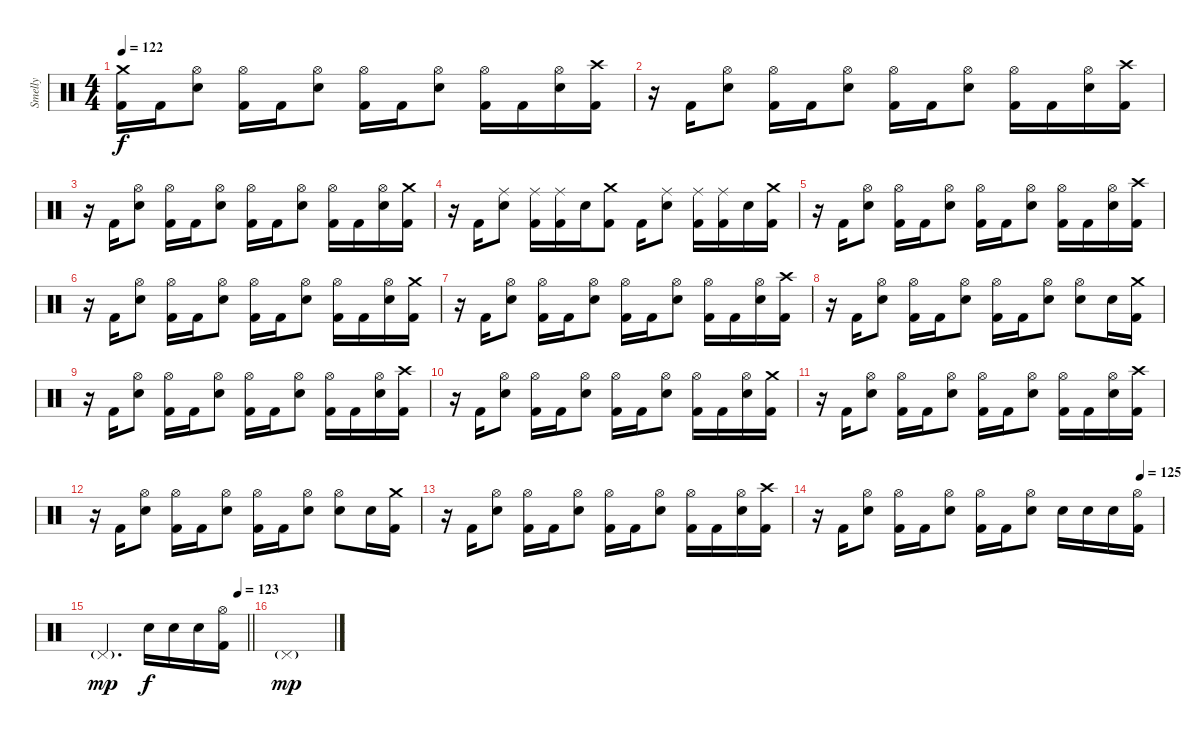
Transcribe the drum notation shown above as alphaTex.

\track ("Smelly" "Smelly") {instrument percussion}
\staff {score}
\articulation defaults
\ts (4 4)
\section ("" "")
\tempo 122
\clef neutral
\ks c
("Crash medium (hit)" "Kick (hit) 2").16{dy f} "Kick (hit) 2".16 ("Hi-Hat (open)" "Electric Snare (hit)").8 ("Hi-Hat (open)" "Kick (hit) 2").16 "Kick (hit) 2".16 ("Hi-Hat (open)" "Electric Snare (hit)").8 ("Hi-Hat (open)" "Kick (hit) 2").16 "Kick (hit) 2".16 ("Hi-Hat (open)" "Electric Snare (hit)").8 ("Hi-Hat (open)" "Kick (hit) 2").16 "Kick (hit) 2".16 ("Hi-Hat (open)" "Electric Snare (hit)").16 ("Crash high (hit)" "Kick (hit) 2").16 |
r.16 "Kick (hit) 2".16 ("Hi-Hat (open)" "Electric Snare (hit)").8 ("Hi-Hat (open)" "Kick (hit) 2").16 "Kick (hit) 2".16 ("Hi-Hat (open)" "Electric Snare (hit)").8 ("Hi-Hat (open)" "Kick (hit) 2").16 "Kick (hit) 2".16 ("Hi-Hat (open)" "Electric Snare (hit)").8 ("Hi-Hat (open)" "Kick (hit) 2").16 "Kick (hit) 2".16 ("Hi-Hat (open)" "Electric Snare (hit)").16 ("Crash high (hit)" "Kick (hit) 2").16 |
r.16 "Kick (hit) 2".16 ("Hi-Hat (open)" "Electric Snare (hit)").8 ("Hi-Hat (open)" "Kick (hit) 2").16 "Kick (hit) 2".16 ("Hi-Hat (open)" "Electric Snare (hit)").8 ("Hi-Hat (open)" "Kick (hit) 2").16 "Kick (hit) 2".16 ("Hi-Hat (open)" "Electric Snare (hit)").8 ("Hi-Hat (open)" "Kick (hit) 2").16 "Kick (hit) 2".16 ("Hi-Hat (open)" "Electric Snare (hit)").16 ("Crash medium (hit)" "Kick (hit) 2").16 |
r.16 "Kick (hit) 2".16 ("Ride (middle)" "Electric Snare (hit)").8 ("Ride (middle)" "Kick (hit) 2").16 ("Ride (middle)" "Kick (hit) 2").16 "Electric Snare (hit)".16 ("Crash medium (hit)" "Kick (hit) 2").8 "Kick (hit) 2".16 ("Ride (middle)" "Electric Snare (hit)").8 ("Ride (middle)" "Kick (hit) 2").16 ("Ride (middle)" "Kick (hit) 2").16 "Electric Snare (hit)".16 ("Crash medium (hit)" "Kick (hit) 2").16 |
r.16 "Kick (hit) 2".16 ("Hi-Hat (open)" "Electric Snare (hit)").8 ("Hi-Hat (open)" "Kick (hit) 2").16 "Kick (hit) 2".16 ("Hi-Hat (open)" "Electric Snare (hit)").8 ("Hi-Hat (open)" "Kick (hit) 2").16 "Kick (hit) 2".16 ("Hi-Hat (open)" "Electric Snare (hit)").8 ("Hi-Hat (open)" "Kick (hit) 2").16 "Kick (hit) 2".16 ("Hi-Hat (open)" "Electric Snare (hit)").16 ("Crash high (hit)" "Kick (hit) 2").16 |
r.16 "Kick (hit) 2".16 ("Hi-Hat (open)" "Electric Snare (hit)").8 ("Hi-Hat (open)" "Kick (hit) 2").16 "Kick (hit) 2".16 ("Hi-Hat (open)" "Electric Snare (hit)").8 ("Hi-Hat (open)" "Kick (hit) 2").16 "Kick (hit) 2".16 ("Hi-Hat (open)" "Electric Snare (hit)").8 ("Hi-Hat (open)" "Kick (hit) 2").16 "Kick (hit) 2".16 ("Hi-Hat (open)" "Electric Snare (hit)").16 ("Crash medium (hit)" "Kick (hit) 2").16 |
r.16 "Kick (hit) 2".16 ("Hi-Hat (open)" "Electric Snare (hit)").8 ("Hi-Hat (open)" "Kick (hit) 2").16 "Kick (hit) 2".16 ("Hi-Hat (open)" "Electric Snare (hit)").8 ("Hi-Hat (open)" "Kick (hit) 2").16 "Kick (hit) 2".16 ("Hi-Hat (open)" "Electric Snare (hit)").8 ("Hi-Hat (open)" "Kick (hit) 2").16 "Kick (hit) 2".16 ("Hi-Hat (open)" "Electric Snare (hit)").16 ("Crash high (hit)" "Kick (hit) 2").16 |
r.16 "Kick (hit) 2".16 ("Hi-Hat (open)" "Electric Snare (hit)").8 ("Hi-Hat (open)" "Kick (hit) 2").16 "Kick (hit) 2".16 ("Hi-Hat (open)" "Electric Snare (hit)").8 ("Hi-Hat (open)" "Kick (hit) 2").16 "Kick (hit) 2".16 ("Hi-Hat (open)" "Electric Snare (hit)").8 ("Hi-Hat (open)" "Electric Snare (hit)").8 "Electric Snare (hit)".16 ("Crash medium (hit)" "Kick (hit) 2").16 |
r.16 "Kick (hit) 2".16 ("Hi-Hat (open)" "Electric Snare (hit)").8 ("Hi-Hat (open)" "Kick (hit) 2").16 "Kick (hit) 2".16 ("Hi-Hat (open)" "Electric Snare (hit)").8 ("Hi-Hat (open)" "Kick (hit) 2").16 "Kick (hit) 2".16 ("Hi-Hat (open)" "Electric Snare (hit)").8 ("Hi-Hat (open)" "Kick (hit) 2").16 "Kick (hit) 2".16 ("Hi-Hat (open)" "Electric Snare (hit)").16 ("Crash high (hit)" "Kick (hit) 2").16 |
r.16 "Kick (hit) 2".16 ("Hi-Hat (open)" "Electric Snare (hit)").8 ("Hi-Hat (open)" "Kick (hit) 2").16 "Kick (hit) 2".16 ("Hi-Hat (open)" "Electric Snare (hit)").8 ("Hi-Hat (open)" "Kick (hit) 2").16 "Kick (hit) 2".16 ("Hi-Hat (open)" "Electric Snare (hit)").8 ("Hi-Hat (open)" "Kick (hit) 2").16 "Kick (hit) 2".16 ("Hi-Hat (open)" "Electric Snare (hit)").16 ("Crash medium (hit)" "Kick (hit) 2").16 |
r.16 "Kick (hit) 2".16 ("Hi-Hat (open)" "Electric Snare (hit)").8 ("Hi-Hat (open)" "Kick (hit) 2").16 "Kick (hit) 2".16 ("Hi-Hat (open)" "Electric Snare (hit)").8 ("Hi-Hat (open)" "Kick (hit) 2").16 "Kick (hit) 2".16 ("Hi-Hat (open)" "Electric Snare (hit)").8 ("Hi-Hat (open)" "Kick (hit) 2").16 "Kick (hit) 2".16 ("Hi-Hat (open)" "Electric Snare (hit)").16 ("Crash high (hit)" "Kick (hit) 2").16 |
r.16 "Kick (hit) 2".16 ("Hi-Hat (open)" "Electric Snare (hit)").8 ("Hi-Hat (open)" "Kick (hit) 2").16 "Kick (hit) 2".16 ("Hi-Hat (open)" "Electric Snare (hit)").8 ("Hi-Hat (open)" "Kick (hit) 2").16 "Kick (hit) 2".16 ("Hi-Hat (open)" "Electric Snare (hit)").8 ("Hi-Hat (open)" "Electric Snare (hit)").8 "Electric Snare (hit)".16 ("Crash medium (hit)" "Kick (hit) 2").16 |
r.16 "Kick (hit) 2".16 ("Hi-Hat (open)" "Electric Snare (hit)").8 ("Hi-Hat (open)" "Kick (hit) 2").16 "Kick (hit) 2".16 ("Hi-Hat (open)" "Electric Snare (hit)").8 ("Hi-Hat (open)" "Kick (hit) 2").16 "Kick (hit) 2".16 ("Hi-Hat (open)" "Electric Snare (hit)").8 ("Hi-Hat (open)" "Kick (hit) 2").16 "Kick (hit) 2".16 ("Hi-Hat (open)" "Electric Snare (hit)").16 ("Crash high (hit)" "Kick (hit) 2").16 |
\tempo (125 0.9375)
r.16 "Kick (hit) 2".16 ("Hi-Hat (open)" "Electric Snare (hit)").8 ("Hi-Hat (open)" "Kick (hit) 2").16 "Kick (hit) 2".16 ("Hi-Hat (open)" "Electric Snare (hit)").8 ("Hi-Hat (open)" "Kick (hit) 2").16 "Kick (hit) 2".16 ("Hi-Hat (open)" "Electric Snare (hit)").8 "Electric Snare (hit)".16 "Electric Snare (hit)".16 "Electric Snare (hit)".16 ("Hi-Hat (open)" "Kick (hit) 2").16 |
\tempo (123 0.9375)
\barLineRight lightlight "Pedal Hi-Hat (hit)"{g}.2{d dy mp} "Electric Snare (hit)".16{dy f} "Electric Snare (hit)".16 "Electric Snare (hit)".16
("Hi-Hat (open)" "Kick (hit) 2").16 |
\section ("" "")
"Pedal Hi-Hat (hit)"{g}.1{dy mp}
